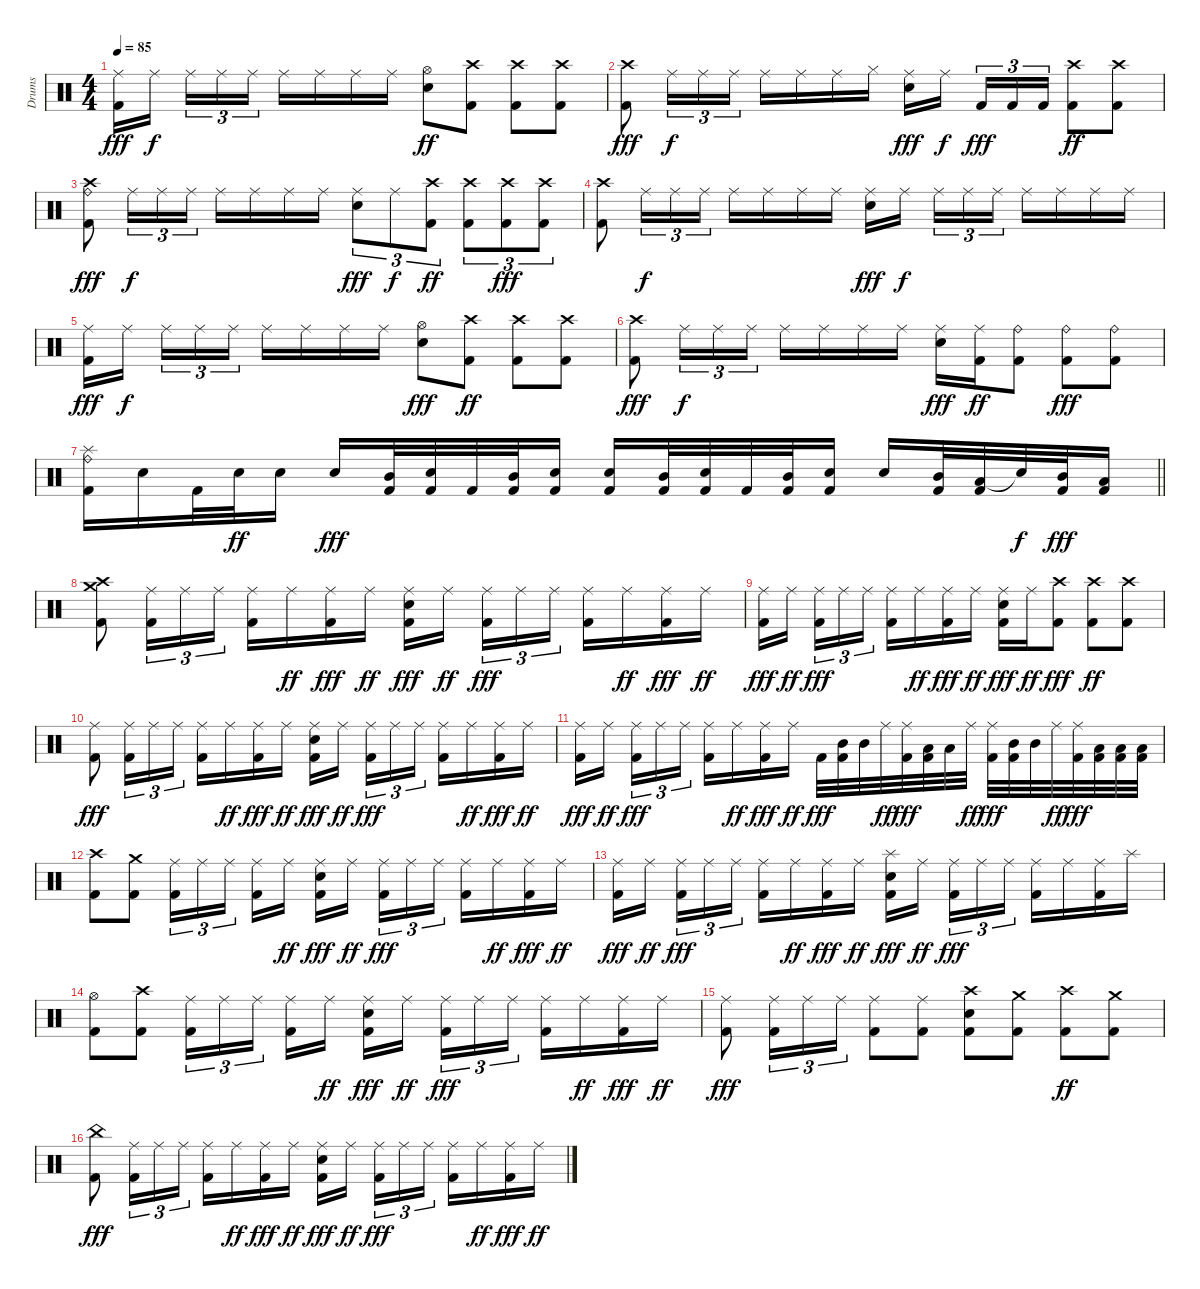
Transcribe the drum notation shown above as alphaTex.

\track ("Drums" "Drums") {instrument percussion}
\staff {score}
\articulation defaults
\ts (4 4)
\tempo 85
\clef neutral
\ks c
("Ride (middle)" "Kick (hit) 2").16{dy fff} "Ride (middle)".16{dy f beam splitsecondary} "Ride (middle)".16{tu (3 2)} "Ride (middle)".16{tu (3 2)} "Ride (middle)".16{tu (3 2)} "Ride (middle)".16 "Ride (middle)".16 "Ride (middle)".16 "Ride (middle)".16 ("Hi-Hat (open)" "Snare (hit) 2").8{dy ff} ("Crash high (hit)" "Kick (hit) 2").8 ("Crash high (hit)" "Kick (hit) 2").8 ("Crash high (hit)" "Kick (hit) 2").8 |
("Crash high (hit)" "Kick (hit) 2").8{dy fff} "Ride (middle)".16{tu (3 2) dy f} "Ride (middle)".16{tu (3 2)} "Ride (middle)".16{tu (3 2)} "Ride (middle)".16 "Ride (middle)".16 "Ride (middle)".16 "Hi-Hat (closed)".16 ("Ride (middle)" "Snare (hit) 2").16{dy fff} "Ride (middle)".16{dy f beam splitsecondary} "Kick (hit) 2".16{tu (3 2) dy fff} "Kick (hit) 2".16{tu (3 2)} "Kick (hit) 2".16{tu (3 2)} ("Crash high (hit)" "Kick (hit) 2").8{dy ff} ("Crash high (hit)" "Kick (hit) 2").8 |
("Crash high (hit)" "Ride (bell)" "Kick (hit) 2").8{dy fff} "Ride (middle)".16{tu (3 2) dy f} "Ride (middle)".16{tu (3 2)} "Ride (middle)".16{tu (3 2)} "Ride (middle)".16 "Ride (middle)".16 "Ride (middle)".16 "Ride (middle)".16 ("Ride (middle)" "Snare (hit) 2").8{tu (3 2) dy fff} "Ride (middle)".8{tu (3 2) dy f} ("Crash high (hit)" "Kick (hit) 2").8{tu (3 2) dy ff} ("Crash high (hit)" "Kick (hit) 2").8{tu (3 2)} ("Crash high (hit)" "Kick (hit) 2").8{tu (3 2) dy fff} ("Crash high (hit)" "Kick (hit) 2").8{tu (3 2)} |
("Crash high (hit)" "Kick (hit) 2").8 "Ride (middle)".16{tu (3 2) dy f} "Ride (middle)".16{tu (3 2)} "Ride (middle)".16{tu (3 2)} "Ride (middle)".16 "Ride (middle)".16 "Ride (middle)".16 "Ride (middle)".16 ("Ride (middle)" "Snare (hit) 2").16{dy fff} "Ride (middle)".16{dy f beam splitsecondary} "Ride (middle)".16{tu (3 2)} "Ride (middle)".16{tu (3 2)} "Ride (middle)".16{tu (3 2)} "Ride (middle)".16 "Ride (middle)".16 "Ride (middle)".16 "Ride (middle)".16 |
("Ride (middle)" "Kick (hit) 2").16{dy fff} "Ride (middle)".16{dy f beam splitsecondary} "Ride (middle)".16{tu (3 2)} "Ride (middle)".16{tu (3 2)} "Ride (middle)".16{tu (3 2)} "Ride (middle)".16 "Ride (middle)".16 "Ride (middle)".16 "Ride (middle)".16 ("Hi-Hat (open)" "Snare (hit) 2").8{dy fff} ("Crash high (hit)" "Kick (hit) 2").8{dy ff} ("Crash high (hit)" "Kick (hit) 2").8 ("Crash high (hit)" "Kick (hit) 2").8 |
("Crash high (hit)" "Kick (hit) 2").8{dy fff} "Ride (middle)".16{tu (3 2) dy f} "Ride (middle)".16{tu (3 2)} "Ride (middle)".16{tu (3 2)} "Ride (middle)".16 "Ride (middle)".16 "Ride (middle)".16 "Ride (middle)".16 ("Ride (middle)" "Snare (hit) 2").16{dy fff} ("Ride (middle)" "Kick (hit) 2").16{dy ff} ("Ride (bell)" "Kick (hit) 2").8 ("Ride (bell)" "Kick (hit) 2").8{dy fff} ("Ride (bell)" "Kick (hit) 2").8 |
\barLineRight lightlight
("Splash (hit)" "Ride (bell)" "Kick (hit) 2").16 "Snare (hit) 2".16 "Kick (hit) 2".32 "Snare (hit) 2".32{dy ff} "Snare (hit) 2".16 "Snare (hit) 2".16{dy fff} ("Mid Tom (hit)" "Kick (hit) 2").32 ("Snare (hit) 2" "Kick (hit) 2").32 "Kick (hit) 2".32 ("Mid Tom (hit)" "Kick (hit) 2").32 ("Snare (hit) 2" "Kick (hit) 2").16 ("Snare (hit) 2" "Kick (hit) 2").16 ("Mid Tom (hit)" "Kick (hit) 2").32 ("Snare (hit) 2" "Kick (hit) 2").32 "Kick (hit) 2".32 ("Mid Tom (hit)" "Kick (hit) 2").32 ("Snare (hit) 2" "Kick (hit) 2").16 "Snare (hit) 2".16 ("Mid Tom (hit)" "Kick (hit) 2").32 ("Low Tom (hit)" "Kick (hit) 2").32 "Snare (hit)"{t}.32{dy f} ("Mid Tom (hit)" "Kick (hit) 2").32{dy fff} ("Low Tom (hit)" "Kick (hit) 2").16 |
\section ("" "")
("Crash high (hit)" "Crash medium (hit)" "Kick (hit) 2").8 ("Ride (middle)" "Kick (hit) 2").16{tu (3 2)} "Ride (middle)".16{tu (3 2)} "Ride (middle)".16{tu (3 2)} ("Ride (middle)" "Kick (hit) 2").16 "Ride (middle)".16{dy ff} ("Ride (middle)" "Kick (hit) 2").16{dy fff} "Ride (middle)".16{dy ff} ("Ride (middle)" "Snare (hit) 2" "Kick (hit) 2").16{dy fff} "Ride (middle)".16{dy ff beam splitsecondary} ("Ride (middle)" "Kick (hit) 2").16{tu (3 2) dy fff} "Ride (middle)".16{tu (3 2)} "Ride (middle)".16{tu (3 2)} ("Ride (middle)" "Kick (hit) 2").16 "Ride (middle)".16{dy ff} ("Ride (middle)" "Kick (hit) 2").16{dy fff} "Ride (middle)".16{dy ff} |
("Ride (middle)" "Kick (hit) 2").16{dy fff} "Ride (middle)".16{dy ff beam splitsecondary} ("Ride (middle)" "Kick (hit) 2").16{tu (3 2) dy fff} "Ride (middle)".16{tu (3 2)} "Ride (middle)".16{tu (3 2)} ("Ride (middle)" "Kick (hit) 2").16 "Ride (middle)".16{dy ff} ("Ride (middle)" "Kick (hit) 2").16{dy fff} "Ride (middle)".16{dy ff} ("Ride (middle)" "Snare (hit) 2" "Kick (hit) 2").16{dy fff} "Ride (middle)".16{dy ff} ("Crash high (hit)" "Kick (hit) 2").8{dy fff} ("Crash high (hit)" "Kick (hit) 2").8{dy ff} ("Crash high (hit)" "Kick (hit) 2").8 |
("Ride (middle)" "Kick (hit) 2").8{dy fff} ("Ride (middle)" "Kick (hit) 2").16{tu (3 2)} "Ride (middle)".16{tu (3 2)} "Ride (middle)".16{tu (3 2)} ("Ride (middle)" "Kick (hit) 2").16 "Ride (middle)".16{dy ff} ("Ride (middle)" "Kick (hit) 2").16{dy fff} "Ride (middle)".16{dy ff} ("Ride (middle)" "Snare (hit) 2" "Kick (hit) 2").16{dy fff} "Ride (middle)".16{dy ff beam splitsecondary} ("Ride (middle)" "Kick (hit) 2").16{tu (3 2) dy fff} "Ride (middle)".16{tu (3 2)} "Ride (middle)".16{tu (3 2)} ("Ride (middle)" "Kick (hit) 2").16 "Ride (middle)".16{dy ff} ("Ride (middle)" "Kick (hit) 2").16{dy fff} "Ride (middle)".16{dy ff} |
("Ride (middle)" "Kick (hit) 2").16{dy fff} "Ride (middle)".16{dy ff beam splitsecondary} ("Ride (middle)" "Kick (hit) 2").16{tu (3 2) dy fff} "Ride (middle)".16{tu (3 2)} "Ride (middle)".16{tu (3 2)} ("Ride (middle)" "Kick (hit) 2").16 "Ride (middle)".16{dy ff} ("Ride (middle)" "Kick (hit) 2").16{dy fff} "Ride (middle)".16{dy ff} "Kick (hit) 2".32{dy fff} ("Mid Tom (hit)" "Kick (hit) 2").32 "Mid Tom (hit)".32 "Ride (middle)".32{dy ff} ("Ride (middle)" "Kick (hit) 2").32{dy fff} ("Low Tom (hit)" "Kick (hit) 2").32 "Low Tom (hit)".32 "Ride (middle)".32{dy ff} ("Ride (middle)" "Kick (hit) 2").32{dy fff} ("Mid Tom (hit)" "Kick (hit) 2").32 "Mid Tom (hit)".32 "Ride (middle)".32{dy ff} ("Ride (middle)" "Kick (hit) 2").32{dy fff} ("Low Tom (hit)" "Kick (hit) 2").32 ("Low Tom (hit)" "Kick (hit) 2").32 ("Low Tom (hit)" "Kick (hit) 2").32 |
("Crash high (hit)" "Kick (hit) 2").8 ("Crash medium (hit)" "Kick (hit) 2").8 ("Ride (middle)" "Kick (hit) 2").16{tu (3 2)} "Ride (middle)".16{tu (3 2)} "Ride (middle)".16{tu (3 2) beam splitsecondary} ("Ride (middle)" "Kick (hit) 2").16 "Ride (middle)".16{dy ff} ("Ride (middle)" "Snare (hit) 2" "Kick (hit) 2").16{dy fff} "Ride (middle)".16{dy ff beam splitsecondary} ("Ride (middle)" "Kick (hit) 2").16{tu (3 2) dy fff} "Ride (middle)".16{tu (3 2)} "Ride (middle)".16{tu (3 2)} ("Ride (middle)" "Kick (hit) 2").16 "Ride (middle)".16{dy ff} ("Ride (middle)" "Kick (hit) 2").16{dy fff} "Ride (middle)".16{dy ff} |
("Ride (middle)" "Kick (hit) 2").16{dy fff} "Ride (middle)".16{dy ff beam splitsecondary} ("Ride (middle)" "Kick (hit) 2").16{tu (3 2) dy fff} "Ride (middle)".16{tu (3 2)} "Ride (middle)".16{tu (3 2)} ("Ride (middle)" "Kick (hit) 2").16 "Ride (middle)".16{dy ff} ("Ride (middle)" "Kick (hit) 2").16{dy fff} "Ride (middle)".16{dy ff} ("Splash (hit)" "Snare (hit) 2" "Kick (hit) 2").16{dy fff} "Ride (middle)".16{dy ff beam splitsecondary} ("Ride (middle)" "Kick (hit) 2").16{tu (3 2) dy fff} "Ride (middle)".16{tu (3 2)} "Ride (middle)".16{tu (3 2)} ("Ride (middle)" "Kick (hit) 2").16 "Ride (middle)".16 ("Ride (middle)" "Kick (hit) 2").16 "Splash (hit)".16 |
("Hi-Hat (open)" "Kick (hit) 2").8 ("Crash high (hit)" "Kick (hit) 2").8 ("Ride (middle)" "Kick (hit) 2").16{tu (3 2)} "Ride (middle)".16{tu (3 2)} "Ride (middle)".16{tu (3 2) beam splitsecondary} ("Ride (middle)" "Kick (hit) 2").16 "Ride (middle)".16{dy ff} ("Ride (middle)" "Snare (hit) 2" "Kick (hit) 2").16{dy fff} "Ride (middle)".16{dy ff beam splitsecondary} ("Ride (middle)" "Kick (hit) 2").16{tu (3 2) dy fff} "Ride (middle)".16{tu (3 2)} "Ride (middle)".16{tu (3 2)} ("Ride (middle)" "Kick (hit) 2").16 "Ride (middle)".16{dy ff} ("Ride (middle)" "Kick (hit) 2").16{dy fff} "Ride (middle)".16{dy ff} |
("Ride (middle)" "Kick (hit) 2").8{dy fff} ("Ride (middle)" "Kick (hit) 2").16{tu (3 2)} "Ride (middle)".16{tu (3 2)} "Ride (middle)".16{tu (3 2)} ("Ride (middle)" "Kick (hit) 2").8 ("Ride (middle)" "Kick (hit) 2").8 ("Crash high (hit)" "Snare (hit) 2" "Kick (hit) 2").8 ("Crash medium (hit)" "Kick (hit) 2").8 ("Crash high (hit)" "Kick (hit) 2").8{dy ff} ("Crash medium (hit)" "Kick (hit) 2").8 |
("China (hit)" "Kick (hit) 2").8{dy fff} ("Ride (middle)" "Kick (hit) 2").16{tu (3 2)} "Ride (middle)".16{tu (3 2)} "Ride (middle)".16{tu (3 2)} ("Ride (middle)" "Kick (hit) 2").16 "Ride (middle)".16{dy ff} ("Ride (middle)" "Kick (hit) 2").16{dy fff} "Ride (middle)".16{dy ff} ("Ride (middle)" "Snare (hit) 2" "Kick (hit) 2").16{dy fff} "Ride (middle)".16{dy ff beam splitsecondary} ("Ride (middle)" "Kick (hit) 2").16{tu (3 2) dy fff} "Ride (middle)".16{tu (3 2)} "Ride (middle)".16{tu (3 2)} ("Ride (middle)" "Kick (hit) 2").16 "Ride (middle)".16{dy ff} ("Ride (middle)" "Kick (hit) 2").16{dy fff} "Ride (middle)".16{dy ff}
